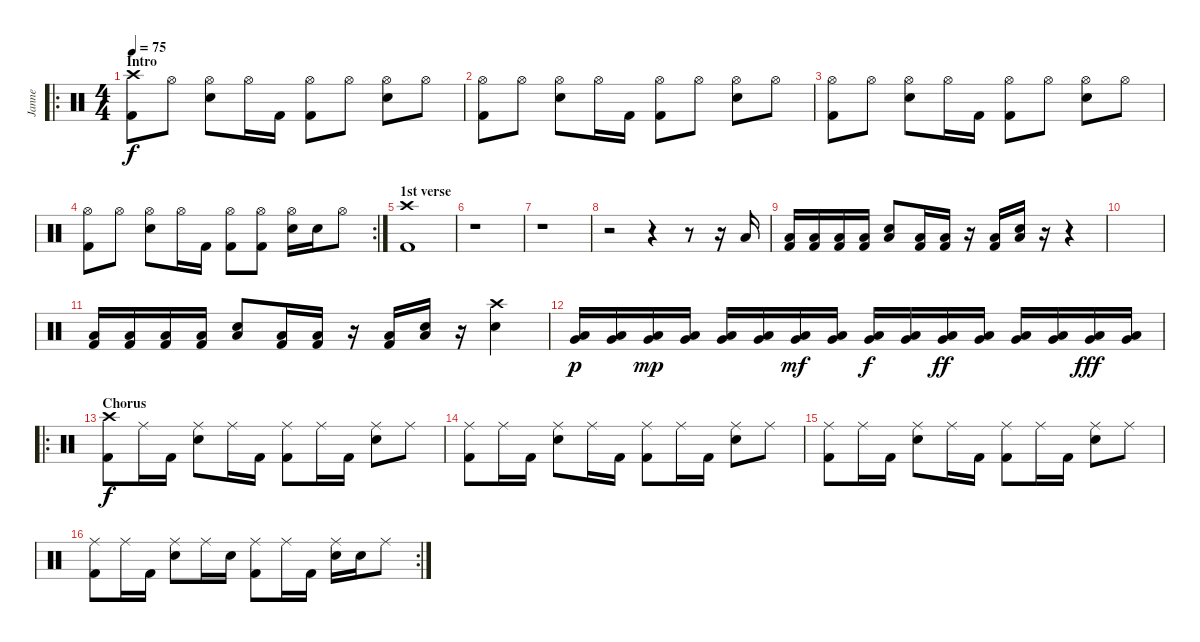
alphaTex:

\track ("Janne" "Janne") {instrument percussion}
\staff {score}
\articulation defaults
\ro
\ts (4 4)
\section ("" "Intro")
\tempo 75
\clef neutral
\ks c
("Crash high (hit)" "Kick (hit) 2").8{dy f} "Hi-Hat (open)".8 ("Hi-Hat (open)" "Electric Snare (hit)").8 "Hi-Hat (open)".16 "Kick (hit) 2".16 ("Hi-Hat (open)" "Kick (hit) 2").8 "Hi-Hat (open)".8 ("Hi-Hat (open)" "Electric Snare (hit)").8 "Hi-Hat (open)".8 |
("Hi-Hat (open)" "Kick (hit) 2").8 "Hi-Hat (open)".8 ("Hi-Hat (open)" "Electric Snare (hit)").8 "Hi-Hat (open)".16 "Kick (hit) 2".16 ("Hi-Hat (open)" "Kick (hit) 2").8 "Hi-Hat (open)".8 ("Hi-Hat (open)" "Electric Snare (hit)").8 "Hi-Hat (open)".8 |
("Hi-Hat (open)" "Kick (hit) 2").8 "Hi-Hat (open)".8 ("Hi-Hat (open)" "Electric Snare (hit)").8 "Hi-Hat (open)".16 "Kick (hit) 2".16 ("Hi-Hat (open)" "Kick (hit) 2").8 "Hi-Hat (open)".8 ("Hi-Hat (open)" "Electric Snare (hit)").8 "Hi-Hat (open)".8 |
\rc 2
("Hi-Hat (open)" "Kick (hit) 2").8 "Hi-Hat (open)".8 ("Hi-Hat (open)" "Electric Snare (hit)").8 "Hi-Hat (open)".16 "Kick (hit) 2".16 ("Hi-Hat (open)" "Kick (hit) 2").8 ("Hi-Hat (open)" "Kick (hit) 2").8 ("Hi-Hat (open)" "Electric Snare (hit)").16 "Electric Snare (hit)".16 "Hi-Hat (open)".8 |
\section ("" "1st verse")
("Crash high (hit)" "Kick (hit) 2").1 |
r.1 |
r.1 |
r.2 r.4 r.8 r.16 "Low Floor Tom (hit)".16 |
("Low Floor Tom (hit)" "Kick (hit) 2").16 ("Low Floor Tom (hit)" "Kick (hit) 2").16 ("Low Floor Tom (hit)" "Kick (hit) 2").16 ("Low Floor Tom (hit)" "Kick (hit) 2").16 ("Low Floor Tom (hit)" "Electric Snare (hit)").8 ("Low Floor Tom (hit)" "Kick (hit) 2").16 ("Low Floor Tom (hit)" "Kick (hit) 2").16 r.16 ("Low Floor Tom (hit)" "Kick (hit) 2").16 ("Low Floor Tom (hit)" "Electric Snare (hit)").16 r.16 r.4 |
|
("Low Floor Tom (hit)" "Kick (hit) 2").16 ("Low Floor Tom (hit)" "Kick (hit) 2").16 ("Low Floor Tom (hit)" "Kick (hit) 2").16 ("Low Floor Tom (hit)" "Kick (hit) 2").16 ("Low Floor Tom (hit)" "Electric Snare (hit)").8 ("Low Floor Tom (hit)" "Kick (hit) 2").16 ("Low Floor Tom (hit)" "Kick (hit) 2").16 r.16 ("Low Floor Tom (hit)" "Kick (hit) 2").16 ("Low Floor Tom (hit)" "Electric Snare (hit)").16 r.16 ("Crash high (hit)" "Electric Snare (hit)").4 |
("Very Low Tom (hit)" "Low Floor Tom (hit)").16{dy p} ("Very Low Tom (hit)" "Low Floor Tom (hit)").16 ("Very Low Tom (hit)" "Low Floor Tom (hit)").16{dy mp} ("Very Low Tom (hit)" "Low Floor Tom (hit)").16 ("Very Low Tom (hit)" "Low Floor Tom (hit)").16 ("Very Low Tom (hit)" "Low Floor Tom (hit)").16 ("Very Low Tom (hit)" "Low Floor Tom (hit)").16{dy mf} ("Very Low Tom (hit)" "Low Floor Tom (hit)").16 ("Very Low Tom (hit)" "Low Floor Tom (hit)").16{dy f} ("Very Low Tom (hit)" "Low Floor Tom (hit)").16 ("Very Low Tom (hit)" "Low Floor Tom (hit)").16{dy ff} ("Very Low Tom (hit)" "Low Floor Tom (hit)").16 ("Very Low Tom (hit)" "Low Floor Tom (hit)").16 ("Very Low Tom (hit)" "Low Floor Tom (hit)").16 ("Very Low Tom (hit)" "Low Floor Tom (hit)").16{dy fff} ("Very Low Tom (hit)" "Low Floor Tom (hit)").16 |
\ro
\section ("" "Chorus")
("Crash high (hit)" "Kick (hit) 2").8{dy f} "Ride (middle)".16 "Kick (hit) 2".16 ("Ride (middle)" "Electric Snare (hit)").8 "Ride (middle)".16 "Kick (hit) 2".16 ("Ride (middle)" "Kick (hit) 2").8 "Ride (middle)".16 "Kick (hit) 2".16 ("Ride (middle)" "Electric Snare (hit)").8 "Ride (middle)".8 |
("Ride (middle)" "Kick (hit) 2").8 "Ride (middle)".16 "Kick (hit) 2".16 ("Ride (middle)" "Electric Snare (hit)").8 "Ride (middle)".16 "Kick (hit) 2".16 ("Ride (middle)" "Kick (hit) 2").8 "Ride (middle)".16 "Kick (hit) 2".16 ("Ride (middle)" "Electric Snare (hit)").8 "Ride (middle)".8 |
("Ride (middle)" "Kick (hit) 2").8 "Ride (middle)".16 "Kick (hit) 2".16 ("Ride (middle)" "Electric Snare (hit)").8 "Ride (middle)".16 "Kick (hit) 2".16 ("Ride (middle)" "Kick (hit) 2").8 "Ride (middle)".16 "Kick (hit) 2".16 ("Ride (middle)" "Electric Snare (hit)").8 "Ride (middle)".8 |
\rc 2
("Ride (middle)" "Kick (hit) 2").8 "Ride (middle)".16 "Kick (hit) 2".16 ("Ride (middle)" "Electric Snare (hit)").8 "Ride (middle)".16 "Electric Snare (hit)".16 ("Ride (middle)" "Kick (hit) 2").8 "Ride (middle)".16 "Kick (hit) 2".16 ("Ride (middle)" "Electric Snare (hit)").16 "Electric Snare (hit)".16 "Ride (middle)".8
